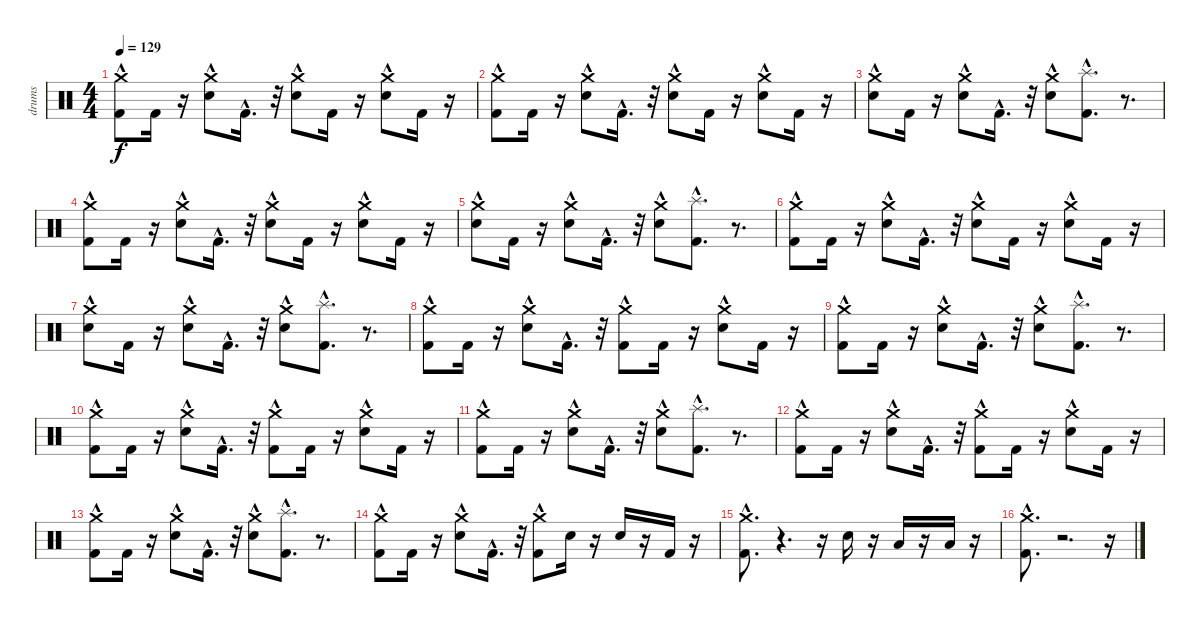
\track ("drums" "drums") {instrument percussion}
\staff {score}
\articulation defaults
\ts (4 4)
\tempo 129
\clef neutral
\ks c
("Kick (hit) 2" "Crash medium (hit)"{hac}).8{dy f} "Kick (hit) 2".16 r.16 ("Snare (hit) 2" "Crash medium (hit)"{hac}).8 "Kick (hit) 2"{hac}.16{d} r.32 ("Snare (hit) 2" "Crash medium (hit)"{hac}).8 "Kick (hit) 2".16 r.16 ("Snare (hit) 2" "Crash medium (hit)"{hac}).8 "Kick (hit) 2".16 r.16 |
("Kick (hit) 2" "Crash medium (hit)"{hac}).8 "Kick (hit) 2".16 r.16 ("Snare (hit) 2" "Crash medium (hit)"{hac}).8 "Kick (hit) 2"{hac}.16{d} r.32 ("Snare (hit) 2" "Crash medium (hit)"{hac}).8 "Kick (hit) 2".16 r.16 ("Snare (hit) 2" "Crash medium (hit)"{hac}).8 "Kick (hit) 2".16 r.16 |
("Snare (hit) 2" "Crash medium (hit)"{hac}).8 "Kick (hit) 2".16 r.16 ("Snare (hit) 2" "Crash medium (hit)"{hac}).8 "Kick (hit) 2"{hac}.16{d} r.32 ("Snare (hit) 2" "Crash medium (hit)"{hac}).8 ("Kick (hit) 2" "Splash (hit)"{hac}).8{d} r.8{d} |
("Kick (hit) 2" "Crash medium (hit)"{hac}).8 "Kick (hit) 2".16 r.16 ("Snare (hit) 2" "Crash medium (hit)"{hac}).8 "Kick (hit) 2"{hac}.16{d} r.32 ("Snare (hit) 2" "Crash medium (hit)"{hac}).8 "Kick (hit) 2".16 r.16 ("Snare (hit) 2" "Crash medium (hit)"{hac}).8 "Kick (hit) 2".16 r.16 |
("Snare (hit) 2" "Crash medium (hit)"{hac}).8 "Kick (hit) 2".16 r.16 ("Snare (hit) 2" "Crash medium (hit)"{hac}).8 "Kick (hit) 2"{hac}.16{d} r.32 ("Snare (hit) 2" "Crash medium (hit)"{hac}).8 ("Kick (hit) 2" "Splash (hit)"{hac}).8{d} r.8{d} |
("Kick (hit) 2" "Crash medium (hit)"{hac}).8 "Kick (hit) 2".16 r.16 ("Snare (hit) 2" "Crash medium (hit)"{hac}).8 "Kick (hit) 2"{hac}.16{d} r.32 ("Snare (hit) 2" "Crash medium (hit)"{hac}).8 "Kick (hit) 2".16 r.16 ("Snare (hit) 2" "Crash medium (hit)"{hac}).8 "Kick (hit) 2".16 r.16 |
("Snare (hit) 2" "Crash medium (hit)"{hac}).8 "Kick (hit) 2".16 r.16 ("Snare (hit) 2" "Crash medium (hit)"{hac}).8 "Kick (hit) 2"{hac}.16{d} r.32 ("Snare (hit) 2" "Crash medium (hit)"{hac}).8 ("Kick (hit) 2" "Splash (hit)"{hac}).8{d} r.8{d} |
("Kick (hit) 2" "Crash medium (hit)"{hac}).8 "Kick (hit) 2".16 r.16 ("Snare (hit) 2" "Crash medium (hit)"{hac}).8 "Kick (hit) 2"{hac}.16{d} r.32 ("Kick (hit) 2" "Crash medium (hit)"{hac}).8 "Kick (hit) 2".16 r.16 ("Snare (hit) 2" "Crash medium (hit)"{hac}).8 "Kick (hit) 2".16 r.16 |
("Kick (hit) 2" "Crash medium (hit)"{hac}).8 "Kick (hit) 2".16 r.16 ("Snare (hit) 2" "Crash medium (hit)"{hac}).8 "Kick (hit) 2"{hac}.16{d} r.32 ("Snare (hit) 2" "Crash medium (hit)"{hac}).8 ("Kick (hit) 2" "Splash (hit)"{hac}).8{d} r.8{d} |
("Kick (hit) 2" "Crash medium (hit)"{hac}).8 "Kick (hit) 2".16 r.16 ("Snare (hit) 2" "Crash medium (hit)"{hac}).8 "Kick (hit) 2"{hac}.16{d} r.32 ("Kick (hit) 2" "Crash medium (hit)"{hac}).8 "Kick (hit) 2".16 r.16 ("Snare (hit) 2" "Crash medium (hit)"{hac}).8 "Kick (hit) 2".16 r.16 |
("Kick (hit) 2" "Crash medium (hit)"{hac}).8 "Kick (hit) 2".16 r.16 ("Snare (hit) 2" "Crash medium (hit)"{hac}).8 "Kick (hit) 2"{hac}.16{d} r.32 ("Snare (hit) 2" "Crash medium (hit)"{hac}).8 ("Kick (hit) 2" "Splash (hit)"{hac}).8{d} r.8{d} |
("Kick (hit) 2" "Crash medium (hit)"{hac}).8 "Kick (hit) 2".16 r.16 ("Snare (hit) 2" "Crash medium (hit)"{hac}).8 "Kick (hit) 2"{hac}.16{d} r.32 ("Kick (hit) 2" "Crash medium (hit)"{hac}).8 "Kick (hit) 2".16 r.16 ("Snare (hit) 2" "Crash medium (hit)"{hac}).8 "Kick (hit) 2".16 r.16 |
("Kick (hit) 2" "Crash medium (hit)"{hac}).8 "Kick (hit) 2".16 r.16 ("Snare (hit) 2" "Crash medium (hit)"{hac}).8 "Kick (hit) 2"{hac}.16{d} r.32 ("Snare (hit) 2" "Crash medium (hit)"{hac}).8 ("Kick (hit) 2" "Splash (hit)"{hac}).8{d} r.8{d} |
("Kick (hit) 2" "Crash medium (hit)"{hac}).8 "Kick (hit) 2".16 r.16 ("Snare (hit) 2" "Crash medium (hit)"{hac}).8 "Kick (hit) 2"{hac}.16{d} r.32 ("Kick (hit) 2" "Crash medium (hit)"{hac}).8 "Snare (hit) 2".16 r.16 "Snare (hit) 2".16 r.16 "Kick (hit) 2".16 r.16 |
("Kick (hit) 2" "Crash medium (hit)"{hac}).8{d} r.4{d} r.16 "Snare (hit) 2".16 r.16 "Low Tom (hit)".16 r.16 "Low Floor Tom (hit)".16 r.16 |
("Kick (hit) 2" "Crash medium (hit)"{hac}).8{d} r.2{d} r.16
